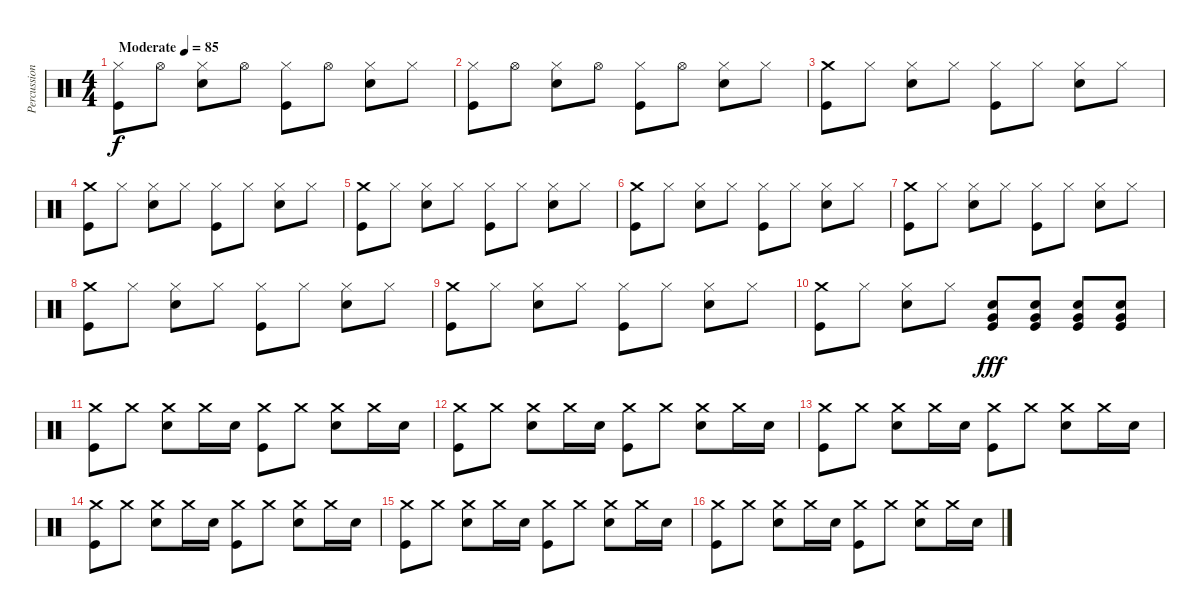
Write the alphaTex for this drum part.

\track ("Percussion" "Percussion") {instrument percussion}
\staff {score}
\articulation defaults
\ts (4 4)
\tempo (85 "Moderate")
\clef neutral
\ks c
("Hi-Hat (closed)" "Kick (hit)").8{dy f} "Hi-Hat (open)".8 ("Hi-Hat (closed)" "Snare (hit) 2").8 "Hi-Hat (open)".8 ("Hi-Hat (closed)" "Kick (hit)").8 "Hi-Hat (open)".8 ("Hi-Hat (closed)" "Snare (hit) 2").8 "Hi-Hat (closed)".8 |
("Hi-Hat (closed)" "Kick (hit)").8 "Hi-Hat (open)".8 ("Hi-Hat (closed)" "Snare (hit) 2").8 "Hi-Hat (open)".8 ("Hi-Hat (closed)" "Kick (hit)").8 "Hi-Hat (open)".8 ("Hi-Hat (closed)" "Snare (hit) 2").8 "Hi-Hat (closed)".8 |
("Crash medium (hit)" "Kick (hit)").8 "Hi-Hat (closed)".8 ("Hi-Hat (closed)" "Electric Snare (hit)").8 "Hi-Hat (closed)".8 ("Hi-Hat (closed)" "Kick (hit)").8 "Hi-Hat (closed)".8 ("Hi-Hat (closed)" "Electric Snare (hit)").8 "Hi-Hat (closed)".8 |
("Crash medium (hit)" "Kick (hit)").8 "Hi-Hat (closed)".8 ("Hi-Hat (closed)" "Electric Snare (hit)").8 "Hi-Hat (closed)".8 ("Hi-Hat (closed)" "Kick (hit)").8 "Hi-Hat (closed)".8 ("Hi-Hat (closed)" "Electric Snare (hit)").8 "Hi-Hat (closed)".8 |
("Crash medium (hit)" "Kick (hit)").8 "Hi-Hat (closed)".8 ("Hi-Hat (closed)" "Electric Snare (hit)").8 "Hi-Hat (closed)".8 ("Hi-Hat (closed)" "Kick (hit)").8 "Hi-Hat (closed)".8 ("Hi-Hat (closed)" "Electric Snare (hit)").8 "Hi-Hat (closed)".8 |
("Crash medium (hit)" "Kick (hit)").8 "Hi-Hat (closed)".8 ("Hi-Hat (closed)" "Electric Snare (hit)").8 "Hi-Hat (closed)".8 ("Hi-Hat (closed)" "Kick (hit)").8 "Hi-Hat (closed)".8 ("Hi-Hat (closed)" "Electric Snare (hit)").8 "Hi-Hat (closed)".8 |
("Crash medium (hit)" "Kick (hit)").8 "Hi-Hat (closed)".8 ("Hi-Hat (closed)" "Electric Snare (hit)").8 "Hi-Hat (closed)".8 ("Hi-Hat (closed)" "Kick (hit)").8 "Hi-Hat (closed)".8 ("Hi-Hat (closed)" "Electric Snare (hit)").8 "Hi-Hat (closed)".8 |
("Crash medium (hit)" "Kick (hit)").8 "Hi-Hat (closed)".8 ("Hi-Hat (closed)" "Electric Snare (hit)").8 "Hi-Hat (closed)".8 ("Hi-Hat (closed)" "Kick (hit)").8 "Hi-Hat (closed)".8 ("Hi-Hat (closed)" "Electric Snare (hit)").8 "Hi-Hat (closed)".8 |
("Crash medium (hit)" "Kick (hit)").8 "Hi-Hat (closed)".8 ("Hi-Hat (closed)" "Electric Snare (hit)").8 "Hi-Hat (closed)".8 ("Hi-Hat (closed)" "Kick (hit)").8 "Hi-Hat (closed)".8 ("Hi-Hat (closed)" "Electric Snare (hit)").8 "Hi-Hat (closed)".8 |
("Crash medium (hit)" "Kick (hit)").8 "Hi-Hat (closed)".8 ("Hi-Hat (closed)" "Electric Snare (hit)").8 "Hi-Hat (closed)".8 ("Very Low Tom (hit)" "Kick (hit)" "Electric Snare (hit)").8{dy fff} ("Very Low Tom (hit)" "Kick (hit)" "Electric Snare (hit)").8 ("Very Low Tom (hit)" "Kick (hit)" "Electric Snare (hit)").8 ("Very Low Tom (hit)" "Kick (hit)" "Electric Snare (hit)").8 |
("Crash medium (hit)" "Kick (hit)").8 "Crash medium (hit)".8 ("Crash medium (hit)" "Electric Snare (hit)").8 "Crash medium (hit)".16 "Electric Snare (hit)".16 ("Crash medium (hit)" "Kick (hit)").8 "Crash medium (hit)".8 ("Crash medium (hit)" "Electric Snare (hit)").8 "Crash medium (hit)".16 "Electric Snare (hit)".16 |
("Crash medium (hit)" "Kick (hit)").8 "Crash medium (hit)".8 ("Crash medium (hit)" "Electric Snare (hit)").8 "Crash medium (hit)".16 "Electric Snare (hit)".16 ("Crash medium (hit)" "Kick (hit)").8 "Crash medium (hit)".8 ("Crash medium (hit)" "Electric Snare (hit)").8 "Crash medium (hit)".16 "Electric Snare (hit)".16 |
("Crash medium (hit)" "Kick (hit)").8 "Crash medium (hit)".8 ("Crash medium (hit)" "Electric Snare (hit)").8 "Crash medium (hit)".16 "Electric Snare (hit)".16 ("Crash medium (hit)" "Kick (hit)").8 "Crash medium (hit)".8 ("Crash medium (hit)" "Electric Snare (hit)").8 "Crash medium (hit)".16 "Electric Snare (hit)".16 |
("Crash medium (hit)" "Kick (hit)").8 "Crash medium (hit)".8 ("Crash medium (hit)" "Electric Snare (hit)").8 "Crash medium (hit)".16 "Electric Snare (hit)".16 ("Crash medium (hit)" "Kick (hit)").8 "Crash medium (hit)".8 ("Crash medium (hit)" "Electric Snare (hit)").8 "Crash medium (hit)".16 "Electric Snare (hit)".16 |
("Crash medium (hit)" "Kick (hit)").8 "Crash medium (hit)".8 ("Crash medium (hit)" "Electric Snare (hit)").8 "Crash medium (hit)".16 "Electric Snare (hit)".16 ("Crash medium (hit)" "Kick (hit)").8 "Crash medium (hit)".8 ("Crash medium (hit)" "Electric Snare (hit)").8 "Crash medium (hit)".16 "Electric Snare (hit)".16 |
("Crash medium (hit)" "Kick (hit)").8 "Crash medium (hit)".8 ("Crash medium (hit)" "Electric Snare (hit)").8 "Crash medium (hit)".16 "Electric Snare (hit)".16 ("Crash medium (hit)" "Kick (hit)").8 "Crash medium (hit)".8 ("Crash medium (hit)" "Electric Snare (hit)").8 "Crash medium (hit)".16 "Electric Snare (hit)".16
